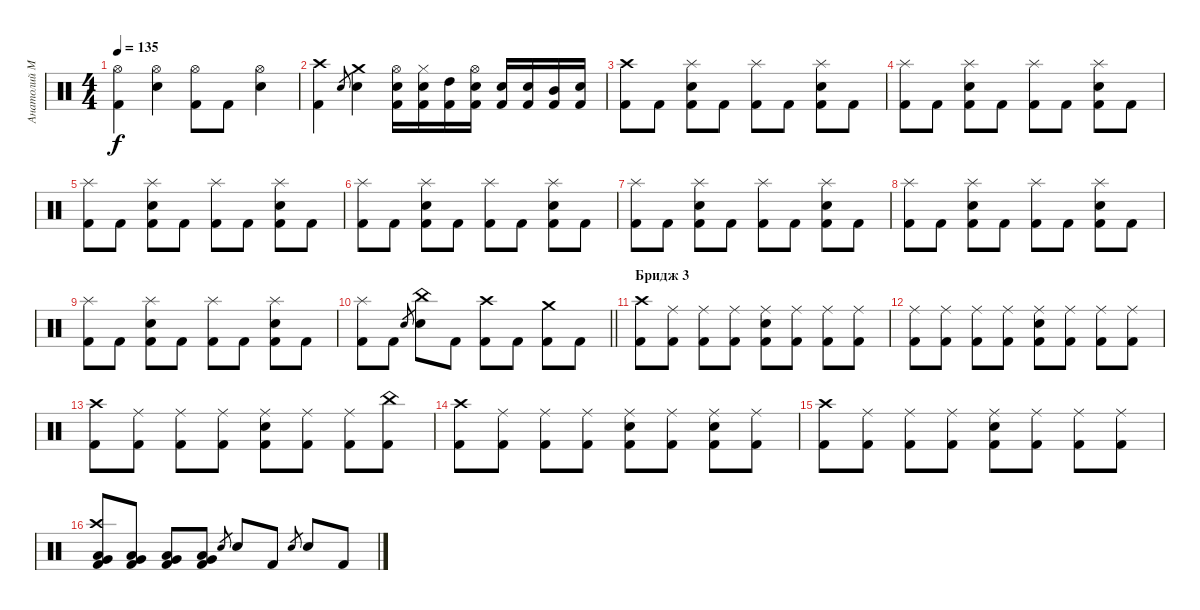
\track ("Анатолий Малиновский" "Анатолий М") {instrument percussion}
\staff {score}
\articulation defaults
\ts (4 4)
\tempo 135
\clef neutral
\ks c
("Hi-Hat (open)" "Kick (hit) 2").4{dy f} ("Hi-Hat (open)" "Electric Snare (hit)").4 ("Hi-Hat (open)" "Kick (hit) 2").8 "Kick (hit) 2".8 ("Hi-Hat (open)" "Electric Snare (hit)").4 |
("Crash high (hit)" "Kick (hit) 2").4 "Electric Snare (hit)".8{gr} ("Crash medium (hit)" "Electric Snare (hit)").4 ("Hi-Hat (open)" "Electric Snare (hit)" "Kick (hit) 2").16 ("Hi-Hat (closed)" "Electric Snare (hit)" "Kick (hit) 2").16 ("High Tom (hit)" "Kick (hit) 2").16 ("Hi-Hat (open)" "Electric Snare (hit)" "Kick (hit) 2").16 ("Electric Snare (hit)" "Kick (hit) 2").16 ("Electric Snare (hit)" "Kick (hit) 2").16 ("Mid Tom (hit)" "Kick (hit) 2").16 ("Electric Snare (hit)" "Kick (hit) 2").16 |
("Crash high (hit)" "Kick (hit) 2").8 "Kick (hit) 2".8 ("Splash (hit)" "Electric Snare (hit)" "Kick (hit) 2").8 "Kick (hit) 2".8 ("Splash (hit)" "Kick (hit) 2").8 "Kick (hit) 2".8 ("Splash (hit)" "Electric Snare (hit)" "Kick (hit) 2").8 "Kick (hit) 2".8 |
("Splash (hit)" "Kick (hit) 2").8 "Kick (hit) 2".8 ("Splash (hit)" "Electric Snare (hit)" "Kick (hit) 2").8 "Kick (hit) 2".8 ("Splash (hit)" "Kick (hit) 2").8 "Kick (hit) 2".8 ("Splash (hit)" "Electric Snare (hit)" "Kick (hit) 2").8 "Kick (hit) 2".8 |
("Splash (hit)" "Kick (hit) 2").8 "Kick (hit) 2".8 ("Splash (hit)" "Electric Snare (hit)" "Kick (hit) 2").8 "Kick (hit) 2".8 ("Splash (hit)" "Kick (hit) 2").8 "Kick (hit) 2".8 ("Splash (hit)" "Electric Snare (hit)" "Kick (hit) 2").8 "Kick (hit) 2".8 |
("Splash (hit)" "Kick (hit) 2").8 "Kick (hit) 2".8 ("Splash (hit)" "Electric Snare (hit)" "Kick (hit) 2").8 "Kick (hit) 2".8 ("Splash (hit)" "Kick (hit) 2").8 "Kick (hit) 2".8 ("Splash (hit)" "Electric Snare (hit)" "Kick (hit) 2").8 "Kick (hit) 2".8 |
("Splash (hit)" "Kick (hit) 2").8 "Kick (hit) 2".8 ("Splash (hit)" "Electric Snare (hit)" "Kick (hit) 2").8 "Kick (hit) 2".8 ("Splash (hit)" "Kick (hit) 2").8 "Kick (hit) 2".8 ("Splash (hit)" "Electric Snare (hit)" "Kick (hit) 2").8 "Kick (hit) 2".8 |
("Splash (hit)" "Kick (hit) 2").8 "Kick (hit) 2".8 ("Splash (hit)" "Electric Snare (hit)" "Kick (hit) 2").8 "Kick (hit) 2".8 ("Splash (hit)" "Kick (hit) 2").8 "Kick (hit) 2".8 ("Splash (hit)" "Electric Snare (hit)" "Kick (hit) 2").8 "Kick (hit) 2".8 |
("Splash (hit)" "Kick (hit) 2").8 "Kick (hit) 2".8 ("Splash (hit)" "Electric Snare (hit)" "Kick (hit) 2").8 "Kick (hit) 2".8 ("Splash (hit)" "Kick (hit) 2").8 "Kick (hit) 2".8 ("Splash (hit)" "Electric Snare (hit)" "Kick (hit) 2").8 "Kick (hit) 2".8 |
\barLineRight lightlight
("Splash (hit)" "Kick (hit) 2").8 "Kick (hit) 2".8 "Electric Snare (hit)".8{gr} ("China (hit)" "Electric Snare (hit)").8 "Kick (hit) 2".8 ("Crash high (hit)" "Kick (hit) 2").8 "Kick (hit) 2".8 ("Crash medium (hit)" "Kick (hit) 2").8 "Kick (hit) 2".8 |
\section ("" "Бридж 3")
("Crash high (hit)" "Kick (hit) 2").8 ("Ride (middle)" "Kick (hit) 2").8 ("Ride (middle)" "Kick (hit) 2").8 ("Ride (middle)" "Kick (hit) 2").8 ("Ride (middle)" "Electric Snare (hit)" "Kick (hit) 2").8 ("Ride (middle)" "Kick (hit) 2").8 ("Ride (middle)" "Kick (hit) 2").8 ("Ride (middle)" "Kick (hit) 2").8 |
("Ride (middle)" "Kick (hit) 2").8 ("Ride (middle)" "Kick (hit) 2").8 ("Ride (middle)" "Kick (hit) 2").8 ("Ride (middle)" "Kick (hit) 2").8 ("Ride (middle)" "Electric Snare (hit)" "Kick (hit) 2").8 ("Ride (middle)" "Kick (hit) 2").8 ("Ride (middle)" "Kick (hit) 2").8 ("Ride (middle)" "Kick (hit) 2").8 |
("Crash high (hit)" "Kick (hit) 2").8 ("Ride (middle)" "Kick (hit) 2").8 ("Ride (middle)" "Kick (hit) 2").8 ("Ride (middle)" "Kick (hit) 2").8 ("Ride (middle)" "Electric Snare (hit)" "Kick (hit) 2").8 ("Ride (middle)" "Kick (hit) 2").8 ("Ride (middle)" "Kick (hit) 2").8 ("China (hit)" "Kick (hit) 2").8 |
("Crash high (hit)" "Kick (hit) 2").8 ("Ride (middle)" "Kick (hit) 2").8 ("Ride (middle)" "Kick (hit) 2").8 ("Ride (middle)" "Kick (hit) 2").8 ("Ride (middle)" "Electric Snare (hit)" "Kick (hit) 2").8 ("Ride (middle)" "Kick (hit) 2").8 ("Ride (middle)" "Electric Snare (hit)" "Kick (hit) 2").8 ("Ride (middle)" "Kick (hit) 2").8 |
("Crash high (hit)" "Kick (hit) 2").8 ("Ride (middle)" "Kick (hit) 2").8 ("Ride (middle)" "Kick (hit) 2").8 ("Ride (middle)" "Kick (hit) 2").8 ("Ride (middle)" "Electric Snare (hit)" "Kick (hit) 2").8 ("Ride (middle)" "Kick (hit) 2").8 ("Ride (middle)" "Kick (hit) 2").8 ("Ride (middle)" "Kick (hit) 2").8 |
("Crash high (hit)" "Very Low Tom (hit)" "Low Tom (hit)" "Kick (hit) 2").8 ("Very Low Tom (hit)" "Low Tom (hit)" "Kick (hit) 2").8 ("Very Low Tom (hit)" "Low Tom (hit)" "Kick (hit) 2").8 ("Very Low Tom (hit)" "Low Tom (hit)" "Kick (hit) 2").8 "Electric Snare (hit)".8{gr} "Electric Snare (hit)".8 "Kick (hit) 2".8 "Electric Snare (hit)".8{gr} "Electric Snare (hit)".8 "Kick (hit) 2".8
